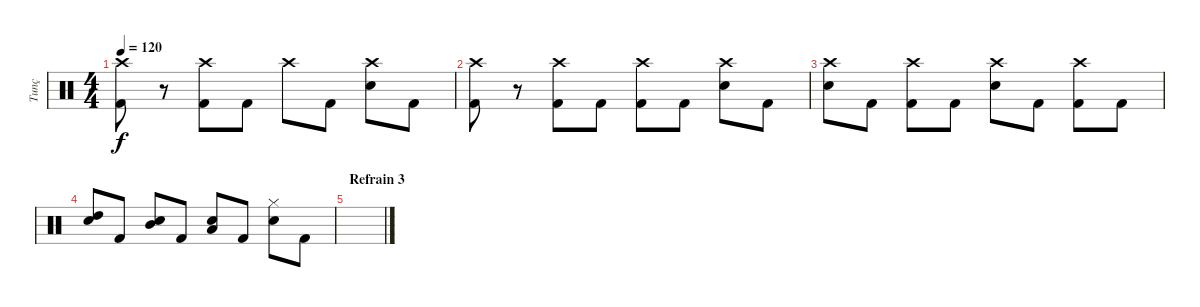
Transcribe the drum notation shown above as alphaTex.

\track ("Tunç" "Tunç") {instrument percussion}
\staff {score}
\articulation defaults
\ts (4 4)
\tempo 120
\clef neutral
\ks c
("Crash high (hit)" "Kick (hit) 2").8{dy f} r.8 ("Crash high (hit)" "Kick (hit) 2").8 "Kick (hit) 2".8 "Crash high (hit)".8 "Kick (hit) 2".8 ("Crash high (hit)" "Snare (hit) 2").8 "Kick (hit) 2".8 |
("Crash high (hit)" "Kick (hit) 2").8 r.8 ("Crash high (hit)" "Kick (hit) 2").8 "Kick (hit) 2".8 ("Crash high (hit)" "Kick (hit) 2").8 "Kick (hit) 2".8 ("Crash high (hit)" "Snare (hit) 2").8 "Kick (hit) 2".8 |
("Crash high (hit)" "Snare (hit) 2").8 "Kick (hit) 2".8 ("Crash high (hit)" "Kick (hit) 2").8 "Kick (hit) 2".8 ("Crash high (hit)" "Snare (hit) 2").8 "Kick (hit) 2".8 ("Crash high (hit)" "Kick (hit) 2").8 "Kick (hit) 2".8 |
("Snare (hit) 2" "High Tom (hit)").8 "Kick (hit) 2".8 ("Snare (hit) 2" "Mid Tom (hit)").8 "Kick (hit) 2".8 ("Snare (hit) 2" "Low Floor Tom (hit)").8 "Kick (hit) 2".8 ("Snare (hit) 2" "Hi-Hat (closed)").8 "Kick (hit) 2".8 |
\section ("" "Refrain 3")
